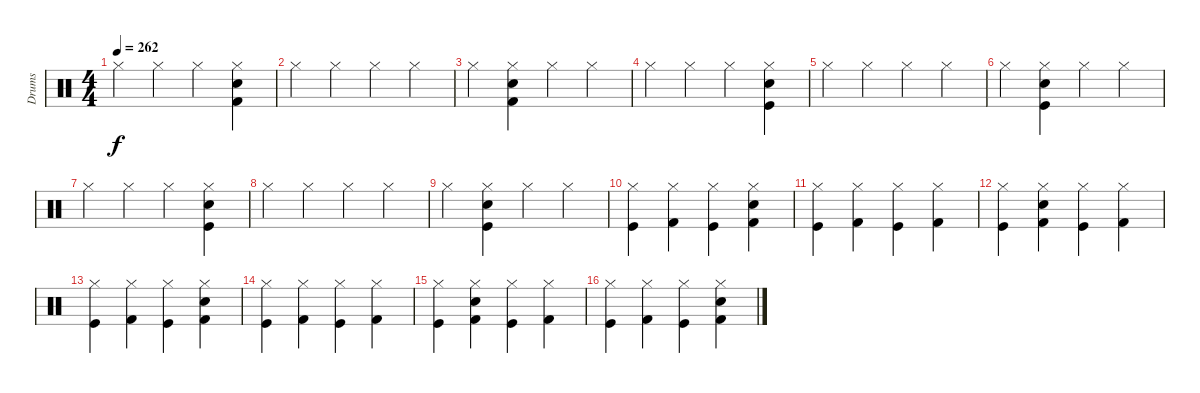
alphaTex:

\track ("Drums" "Drums") {instrument percussion}
\staff {score}
\articulation defaults
\ts (4 4)
\tempo 262
\clef neutral
\ks c "Hi-Hat (closed)".4{dy f} "Hi-Hat (closed)".4 "Hi-Hat (closed)".4
("Electric Snare (hit)" "Hi-Hat (closed)" "Kick (hit) 2").4 |
"Hi-Hat (closed)".4 "Hi-Hat (closed)".4 "Hi-Hat (closed)".4 "Hi-Hat (closed)".4 |
"Hi-Hat (closed)".4 ("Electric Snare (hit)" "Hi-Hat (closed)" "Kick (hit) 2").4 "Hi-Hat (closed)".4 "Hi-Hat (closed)".4 |
"Hi-Hat (closed)".4 "Hi-Hat (closed)".4 "Hi-Hat (closed)".4 ("Electric Snare (hit)" "Hi-Hat (closed)" "Kick (hit)").4 |
"Hi-Hat (closed)".4 "Hi-Hat (closed)".4 "Hi-Hat (closed)".4 "Hi-Hat (closed)".4 |
"Hi-Hat (closed)".4 ("Electric Snare (hit)" "Hi-Hat (closed)" "Kick (hit)").4 "Hi-Hat (closed)".4 "Hi-Hat (closed)".4 |
"Hi-Hat (closed)".4 "Hi-Hat (closed)".4 "Hi-Hat (closed)".4 ("Electric Snare (hit)" "Hi-Hat (closed)" "Kick (hit)").4 |
"Hi-Hat (closed)".4 "Hi-Hat (closed)".4 "Hi-Hat (closed)".4 "Hi-Hat (closed)".4 |
"Hi-Hat (closed)".4 ("Electric Snare (hit)" "Hi-Hat (closed)" "Kick (hit)").4 "Hi-Hat (closed)".4 "Hi-Hat (closed)".4 |
("Hi-Hat (closed)" "Kick (hit)").4 ("Hi-Hat (closed)" "Kick (hit) 2").4 ("Hi-Hat (closed)" "Kick (hit)").4 ("Electric Snare (hit)" "Hi-Hat (closed)" "Kick (hit) 2").4 |
("Hi-Hat (closed)" "Kick (hit)").4 ("Hi-Hat (closed)" "Kick (hit) 2").4 ("Hi-Hat (closed)" "Kick (hit)").4 ("Hi-Hat (closed)" "Kick (hit) 2").4 |
("Hi-Hat (closed)" "Kick (hit)").4 ("Electric Snare (hit)" "Hi-Hat (closed)" "Kick (hit) 2").4 ("Hi-Hat (closed)" "Kick (hit)").4 ("Hi-Hat (closed)" "Kick (hit) 2").4 |
("Hi-Hat (closed)" "Kick (hit)").4 ("Hi-Hat (closed)" "Kick (hit) 2").4 ("Hi-Hat (closed)" "Kick (hit)").4 ("Electric Snare (hit)" "Hi-Hat (closed)" "Kick (hit) 2").4 |
("Hi-Hat (closed)" "Kick (hit)").4 ("Hi-Hat (closed)" "Kick (hit) 2").4 ("Hi-Hat (closed)" "Kick (hit)").4 ("Hi-Hat (closed)" "Kick (hit) 2").4 |
("Hi-Hat (closed)" "Kick (hit)").4 ("Electric Snare (hit)" "Hi-Hat (closed)" "Kick (hit) 2").4 ("Hi-Hat (closed)" "Kick (hit)").4 ("Hi-Hat (closed)" "Kick (hit) 2").4 |
("Hi-Hat (closed)" "Kick (hit)").4 ("Hi-Hat (closed)" "Kick (hit) 2").4 ("Hi-Hat (closed)" "Kick (hit)").4 ("Electric Snare (hit)" "Hi-Hat (closed)" "Kick (hit) 2").4
